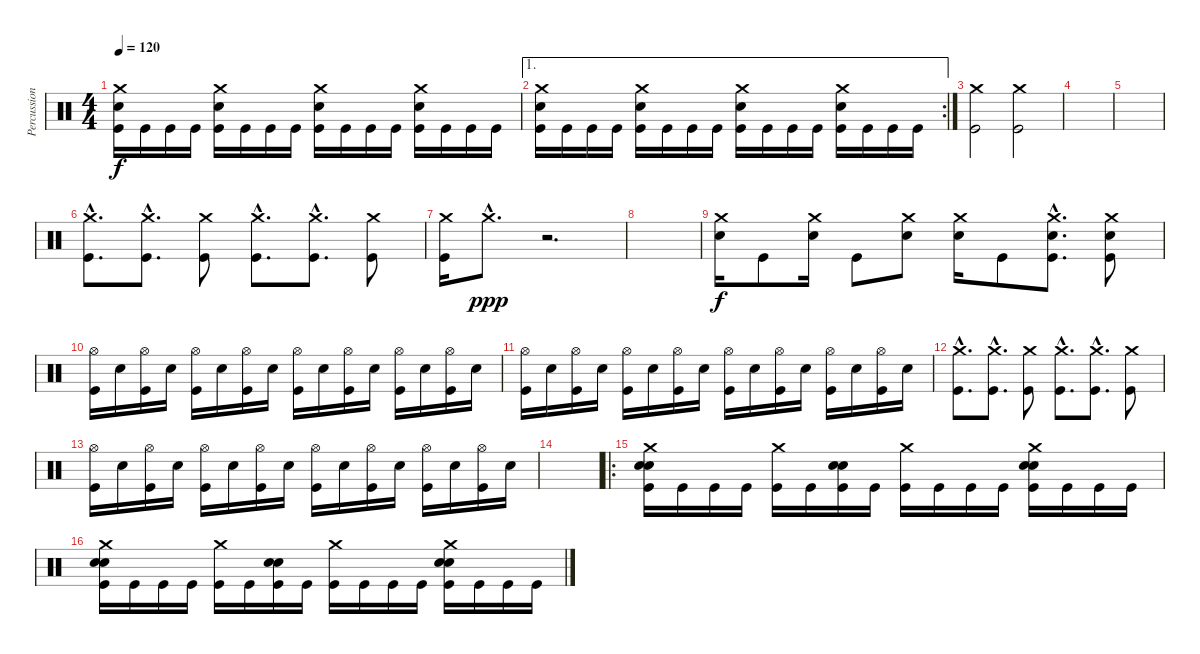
\track ("Percussion" "Percussion") {instrument percussion}
\staff {score}
\articulation defaults
\ts (4 4)
\tempo 120
\clef neutral
\ks c
("Crash medium (hit)" "Snare (hit) 2" "Kick (hit)").16{dy f} "Kick (hit)".16 "Kick (hit)".16 "Kick (hit)".16 ("Crash medium (hit)" "Snare (hit) 2" "Kick (hit)").16 "Kick (hit)".16 "Kick (hit)".16 "Kick (hit)".16 ("Crash medium (hit)" "Snare (hit) 2" "Kick (hit)").16 "Kick (hit)".16 "Kick (hit)".16 "Kick (hit)".16 ("Crash medium (hit)" "Snare (hit) 2" "Kick (hit)").16 "Kick (hit)".16 "Kick (hit)".16 "Kick (hit)".16 |
\ae 1
\rc 2
("Crash medium (hit)" "Snare (hit) 2" "Kick (hit)").16 "Kick (hit)".16 "Kick (hit)".16 "Kick (hit)".16 ("Crash medium (hit)" "Snare (hit) 2" "Kick (hit)").16 "Kick (hit)".16 "Kick (hit)".16 "Kick (hit)".16 ("Crash medium (hit)" "Snare (hit) 2" "Kick (hit)").16 "Kick (hit)".16 "Kick (hit)".16 "Kick (hit)".16 ("Crash medium (hit)" "Snare (hit) 2" "Kick (hit)").16 "Kick (hit)".16 "Kick (hit)".16 "Kick (hit)".16 |
("Crash medium (hit)" "Kick (hit)").2 ("Crash medium (hit)" "Kick (hit)").2 |
|
|
("Crash medium (hit)"{hac} "Kick (hit)"{hac}).8{d} ("Crash medium (hit)"{hac} "Kick (hit)"{hac}).8{d} ("Crash medium (hit)" "Kick (hit)").8 ("Crash medium (hit)"{hac} "Kick (hit)"{hac}).8{d} ("Crash medium (hit)"{hac} "Kick (hit)"{hac}).8{d} ("Crash medium (hit)" "Kick (hit)").8 |
("Crash medium (hit)" "Kick (hit)").16 "Crash medium (hit)"{hac}.8{d dy ppp} r.2{d} |
|
("Crash medium (hit)" "Snare (hit) 2").16{dy f} "Kick (hit)".8 ("Crash medium (hit)" "Snare (hit) 2").16 "Kick (hit)".8 ("Crash medium (hit)" "Snare (hit) 2").8 ("Crash medium (hit)" "Snare (hit) 2").16 "Kick (hit)".8 ("Crash medium (hit)"{hac} "Snare (hit) 2"{hac} "Kick (hit)"{hac}).8{d} ("Crash medium (hit)" "Snare (hit) 2" "Kick (hit)").8 |
("Hi-Hat (open)" "Kick (hit)").16 "Snare (hit) 2".16 ("Hi-Hat (open)" "Kick (hit)").16 "Snare (hit) 2".16 ("Hi-Hat (open)" "Kick (hit)").16 "Snare (hit) 2".16 ("Hi-Hat (open)" "Kick (hit)").16 "Snare (hit) 2".16 ("Hi-Hat (open)" "Kick (hit)").16 "Snare (hit) 2".16 ("Hi-Hat (open)" "Kick (hit)").16 "Snare (hit) 2".16 ("Hi-Hat (open)" "Kick (hit)").16 "Snare (hit) 2".16 ("Hi-Hat (open)" "Kick (hit)").16 "Snare (hit) 2".16 |
("Hi-Hat (open)" "Kick (hit)").16 "Snare (hit) 2".16 ("Hi-Hat (open)" "Kick (hit)").16 "Snare (hit) 2".16 ("Hi-Hat (open)" "Kick (hit)").16 "Snare (hit) 2".16 ("Hi-Hat (open)" "Kick (hit)").16 "Snare (hit) 2".16 ("Hi-Hat (open)" "Kick (hit)").16 "Snare (hit) 2".16 ("Hi-Hat (open)" "Kick (hit)").16 "Snare (hit) 2".16 ("Hi-Hat (open)" "Kick (hit)").16 "Snare (hit) 2".16 ("Hi-Hat (open)" "Kick (hit)").16 "Snare (hit) 2".16 |
("Crash medium (hit)"{hac} "Kick (hit)"{hac}).8{d} ("Crash medium (hit)"{hac} "Kick (hit)"{hac}).8{d} ("Crash medium (hit)" "Kick (hit)").8 ("Crash medium (hit)"{hac} "Kick (hit)"{hac}).8{d} ("Crash medium (hit)"{hac} "Kick (hit)"{hac}).8{d} ("Crash medium (hit)" "Kick (hit)").8 |
("Hi-Hat (open)" "Kick (hit)").16 "Snare (hit) 2".16 ("Hi-Hat (open)" "Kick (hit)").16 "Snare (hit) 2".16 ("Hi-Hat (open)" "Kick (hit)").16 "Snare (hit) 2".16 ("Hi-Hat (open)" "Kick (hit)").16 "Snare (hit) 2".16 ("Hi-Hat (open)" "Kick (hit)").16 "Snare (hit) 2".16 ("Hi-Hat (open)" "Kick (hit)").16 "Snare (hit) 2".16 ("Hi-Hat (open)" "Kick (hit)").16 "Snare (hit) 2".16 ("Hi-Hat (open)" "Kick (hit)").16 "Snare (hit) 2".16 |
|
\ro
("Crash medium (hit)" "Snare (hit) 2" "Snare (hit) 2" "Kick (hit)").16 "Kick (hit)".16 "Kick (hit)".16 "Kick (hit)".16 ("Crash medium (hit)" "Kick (hit)").16 "Kick (hit)".16 ("Snare (hit) 2" "Snare (hit) 2" "Kick (hit)").16 "Kick (hit)".16 ("Crash medium (hit)" "Kick (hit)").16 "Kick (hit)".16 "Kick (hit)".16 "Kick (hit)".16 ("Crash medium (hit)" "Snare (hit) 2" "Snare (hit) 2" "Kick (hit)").16 "Kick (hit)".16 "Kick (hit)".16 "Kick (hit)".16 |
("Crash medium (hit)" "Snare (hit) 2" "Snare (hit) 2" "Kick (hit)").16 "Kick (hit)".16 "Kick (hit)".16 "Kick (hit)".16 ("Crash medium (hit)" "Kick (hit)").16 "Kick (hit)".16 ("Snare (hit) 2" "Snare (hit) 2" "Kick (hit)").16 "Kick (hit)".16 ("Crash medium (hit)" "Kick (hit)").16 "Kick (hit)".16 "Kick (hit)".16 "Kick (hit)".16 ("Crash medium (hit)" "Snare (hit) 2" "Snare (hit) 2" "Kick (hit)").16 "Kick (hit)".16 "Kick (hit)".16 "Kick (hit)".16
